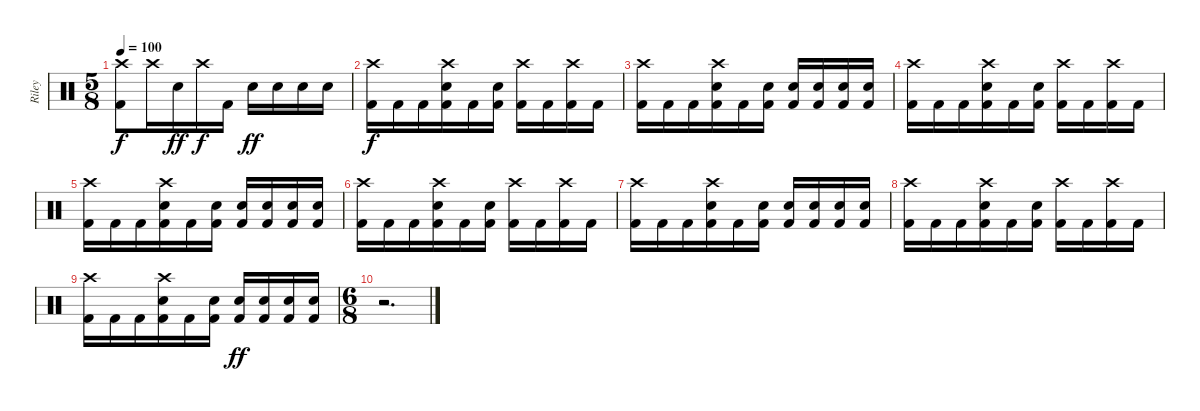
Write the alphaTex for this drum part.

\track ("Riley" "Riley") {instrument percussion}
\staff {score}
\articulation defaults
\ts (5 8)
\tempo 100
\clef neutral
\ks c
("Crash high (hit)" "Kick (hit) 2").8{dy f} "Crash high (hit)".16 "Electric Snare (hit)".16{dy ff} "Crash high (hit)".16{dy f} "Kick (hit) 2".16 "Electric Snare (hit)".16{dy ff} "Electric Snare (hit)".16 "Electric Snare (hit)".16 "Electric Snare (hit)".16 |
("Crash high (hit)" "Kick (hit) 2").16{dy f} "Kick (hit) 2".16 "Kick (hit) 2".16 ("Crash high (hit)" "Electric Snare (hit)" "Kick (hit) 2").16 "Kick (hit) 2".16 ("Electric Snare (hit)" "Kick (hit) 2").16 ("Crash high (hit)" "Kick (hit) 2").16 "Kick (hit) 2".16 ("Crash high (hit)" "Kick (hit) 2").16 "Kick (hit) 2".16 |
("Crash high (hit)" "Kick (hit) 2").16 "Kick (hit) 2".16 "Kick (hit) 2".16 ("Crash high (hit)" "Electric Snare (hit)" "Kick (hit) 2").16 "Kick (hit) 2".16 ("Electric Snare (hit)" "Kick (hit) 2").16 ("Electric Snare (hit)" "Kick (hit) 2").16 ("Electric Snare (hit)" "Kick (hit) 2").16 ("Electric Snare (hit)" "Kick (hit) 2").16 ("Electric Snare (hit)" "Kick (hit) 2").16 |
("Crash high (hit)" "Kick (hit) 2").16 "Kick (hit) 2".16 "Kick (hit) 2".16 ("Crash high (hit)" "Electric Snare (hit)" "Kick (hit) 2").16 "Kick (hit) 2".16 ("Electric Snare (hit)" "Kick (hit) 2").16 ("Crash high (hit)" "Kick (hit) 2").16 "Kick (hit) 2".16 ("Crash high (hit)" "Kick (hit) 2").16 "Kick (hit) 2".16 |
("Crash high (hit)" "Kick (hit) 2").16 "Kick (hit) 2".16 "Kick (hit) 2".16 ("Crash high (hit)" "Electric Snare (hit)" "Kick (hit) 2").16 "Kick (hit) 2".16 ("Electric Snare (hit)" "Kick (hit) 2").16 ("Electric Snare (hit)" "Kick (hit) 2").16 ("Electric Snare (hit)" "Kick (hit) 2").16 ("Electric Snare (hit)" "Kick (hit) 2").16 ("Electric Snare (hit)" "Kick (hit) 2").16 |
("Crash high (hit)" "Kick (hit) 2").16 "Kick (hit) 2".16 "Kick (hit) 2".16 ("Crash high (hit)" "Electric Snare (hit)" "Kick (hit) 2").16 "Kick (hit) 2".16 ("Electric Snare (hit)" "Kick (hit) 2").16 ("Crash high (hit)" "Kick (hit) 2").16 "Kick (hit) 2".16 ("Crash high (hit)" "Kick (hit) 2").16 "Kick (hit) 2".16 |
("Crash high (hit)" "Kick (hit) 2").16 "Kick (hit) 2".16 "Kick (hit) 2".16 ("Crash high (hit)" "Electric Snare (hit)" "Kick (hit) 2").16 "Kick (hit) 2".16 ("Electric Snare (hit)" "Kick (hit) 2").16 ("Electric Snare (hit)" "Kick (hit) 2").16 ("Electric Snare (hit)" "Kick (hit) 2").16 ("Electric Snare (hit)" "Kick (hit) 2").16 ("Electric Snare (hit)" "Kick (hit) 2").16 |
("Crash high (hit)" "Kick (hit) 2").16 "Kick (hit) 2".16 "Kick (hit) 2".16 ("Crash high (hit)" "Electric Snare (hit)" "Kick (hit) 2").16 "Kick (hit) 2".16 ("Electric Snare (hit)" "Kick (hit) 2").16 ("Crash high (hit)" "Kick (hit) 2").16 "Kick (hit) 2".16 ("Crash high (hit)" "Kick (hit) 2").16 "Kick (hit) 2".16 |
("Crash high (hit)" "Kick (hit) 2").16 "Kick (hit) 2".16 "Kick (hit) 2".16 ("Crash high (hit)" "Electric Snare (hit)" "Kick (hit) 2").16 "Kick (hit) 2".16 ("Electric Snare (hit)" "Kick (hit) 2").16 ("Electric Snare (hit)" "Kick (hit) 2").16{dy ff} ("Electric Snare (hit)" "Kick (hit) 2").16 ("Electric Snare (hit)" "Kick (hit) 2").16 ("Electric Snare (hit)" "Kick (hit) 2").16 |
\ts (6 8)
r.2{d}
